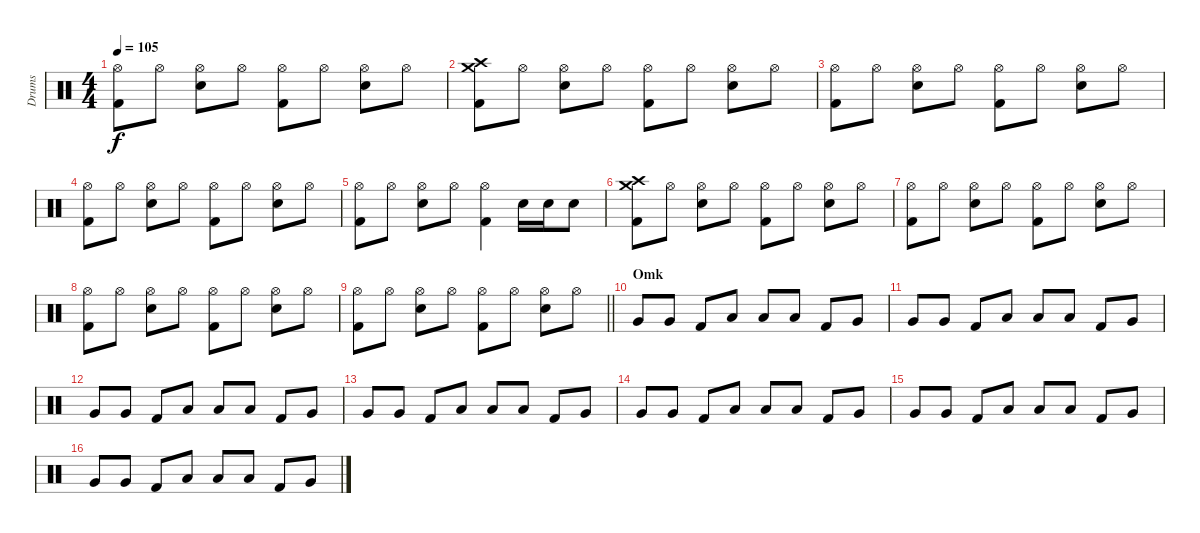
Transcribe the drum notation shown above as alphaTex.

\track ("Drums" "Drums") {instrument percussion}
\staff {score}
\articulation defaults
\ts (4 4)
\tempo 105
\clef neutral
\ks c
("Hi-Hat (open)" "Kick (hit) 2").8{dy f} "Hi-Hat (open)".8 ("Hi-Hat (open)" "Snare (hit) 2").8 "Hi-Hat (open)".8 ("Hi-Hat (open)" "Kick (hit) 2").8 "Hi-Hat (open)".8 ("Hi-Hat (open)" "Snare (hit) 2").8 "Hi-Hat (open)".8 |
("Crash medium (hit)" "Crash high (hit)" "Kick (hit) 2").8 "Hi-Hat (open)".8 ("Hi-Hat (open)" "Snare (hit) 2").8 "Hi-Hat (open)".8 ("Hi-Hat (open)" "Kick (hit) 2").8 "Hi-Hat (open)".8 ("Hi-Hat (open)" "Snare (hit) 2").8 "Hi-Hat (open)".8 |
("Hi-Hat (open)" "Kick (hit) 2").8 "Hi-Hat (open)".8 ("Hi-Hat (open)" "Snare (hit) 2").8 "Hi-Hat (open)".8 ("Hi-Hat (open)" "Kick (hit) 2").8 "Hi-Hat (open)".8 ("Hi-Hat (open)" "Snare (hit) 2").8 "Hi-Hat (open)".8 |
("Hi-Hat (open)" "Kick (hit) 2").8 "Hi-Hat (open)".8 ("Hi-Hat (open)" "Snare (hit) 2").8 "Hi-Hat (open)".8 ("Hi-Hat (open)" "Kick (hit) 2").8 "Hi-Hat (open)".8 ("Hi-Hat (open)" "Snare (hit) 2").8 "Hi-Hat (open)".8 |
("Hi-Hat (open)" "Kick (hit) 2").8 "Hi-Hat (open)".8 ("Hi-Hat (open)" "Snare (hit) 2").8 "Hi-Hat (open)".8 ("Hi-Hat (open)" "Kick (hit) 2").4 "Snare (hit) 2".16 "Snare (hit) 2".16 "Snare (hit) 2".8 |
("Crash medium (hit)" "Crash high (hit)" "Kick (hit) 2").8 "Hi-Hat (open)".8 ("Hi-Hat (open)" "Snare (hit) 2").8 "Hi-Hat (open)".8 ("Hi-Hat (open)" "Kick (hit) 2").8 "Hi-Hat (open)".8 ("Hi-Hat (open)" "Snare (hit) 2").8 "Hi-Hat (open)".8 |
("Hi-Hat (open)" "Kick (hit) 2").8 "Hi-Hat (open)".8 ("Hi-Hat (open)" "Snare (hit) 2").8 "Hi-Hat (open)".8 ("Hi-Hat (open)" "Kick (hit) 2").8 "Hi-Hat (open)".8 ("Hi-Hat (open)" "Snare (hit) 2").8 "Hi-Hat (open)".8 |
("Hi-Hat (open)" "Kick (hit) 2").8 "Hi-Hat (open)".8 ("Hi-Hat (open)" "Snare (hit) 2").8 "Hi-Hat (open)".8 ("Hi-Hat (open)" "Kick (hit) 2").8 "Hi-Hat (open)".8 ("Hi-Hat (open)" "Snare (hit) 2").8 "Hi-Hat (open)".8 |
\barLineRight lightlight
("Hi-Hat (open)" "Kick (hit) 2").8 "Hi-Hat (open)".8 ("Hi-Hat (open)" "Snare (hit) 2").8 "Hi-Hat (open)".8 ("Hi-Hat (open)" "Kick (hit) 2").8 "Hi-Hat (open)".8 ("Hi-Hat (open)" "Snare (hit) 2").8 "Hi-Hat (open)".8 |
\section ("" "Omk")
"Very Low Tom (hit)".8 "Very Low Tom (hit)".8 "Kick (hit) 2".8 "Low Floor Tom (hit)".8 "Low Floor Tom (hit)".8 "Low Floor Tom (hit)".8 "Kick (hit) 2".8 "Very Low Tom (hit)".8 |
"Very Low Tom (hit)".8 "Very Low Tom (hit)".8 "Kick (hit) 2".8 "Low Floor Tom (hit)".8 "Low Floor Tom (hit)".8 "Low Floor Tom (hit)".8 "Kick (hit) 2".8 "Very Low Tom (hit)".8 |
"Very Low Tom (hit)".8 "Very Low Tom (hit)".8 "Kick (hit) 2".8 "Low Floor Tom (hit)".8 "Low Floor Tom (hit)".8 "Low Floor Tom (hit)".8 "Kick (hit) 2".8 "Very Low Tom (hit)".8 |
"Very Low Tom (hit)".8 "Very Low Tom (hit)".8 "Kick (hit) 2".8 "Low Floor Tom (hit)".8 "Low Floor Tom (hit)".8 "Low Floor Tom (hit)".8 "Kick (hit) 2".8 "Very Low Tom (hit)".8 |
"Very Low Tom (hit)".8 "Very Low Tom (hit)".8 "Kick (hit) 2".8 "Low Floor Tom (hit)".8 "Low Floor Tom (hit)".8 "Low Floor Tom (hit)".8 "Kick (hit) 2".8 "Very Low Tom (hit)".8 |
"Very Low Tom (hit)".8 "Very Low Tom (hit)".8 "Kick (hit) 2".8 "Low Floor Tom (hit)".8 "Low Floor Tom (hit)".8 "Low Floor Tom (hit)".8 "Kick (hit) 2".8 "Very Low Tom (hit)".8 |
"Very Low Tom (hit)".8 "Very Low Tom (hit)".8 "Kick (hit) 2".8 "Low Floor Tom (hit)".8 "Low Floor Tom (hit)".8 "Low Floor Tom (hit)".8 "Kick (hit) 2".8 "Very Low Tom (hit)".8
